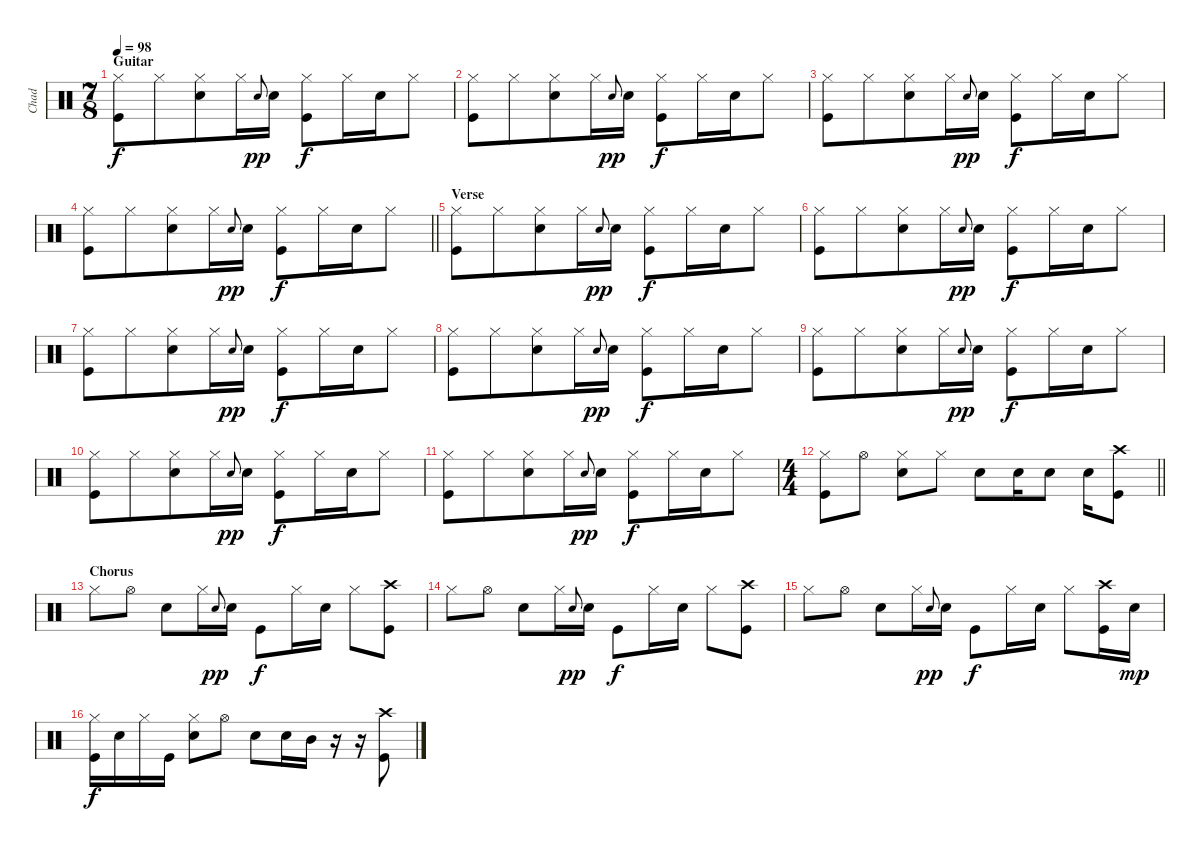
\track ("Chad" "Chad") {instrument percussion}
\staff {score}
\articulation defaults
\ts (7 8)
\section ("" "Guitar")
\tempo 98
\clef neutral
\ks c
("Hi-Hat (closed)" "Kick (hit)").8{dy f} "Hi-Hat (closed)".8 ("Hi-Hat (closed)" "Snare (hit) 2").8 "Hi-Hat (closed)".16 "Snare (hit) 2".8{gr onbeat dy pp} "Snare (hit) 2".16 ("Hi-Hat (closed)" "Kick (hit)").8{dy f} "Hi-Hat (closed)".16 "Snare (hit) 2".16 "Hi-Hat (closed)".8 |
("Hi-Hat (closed)" "Kick (hit)").8 "Hi-Hat (closed)".8 ("Hi-Hat (closed)" "Snare (hit) 2").8 "Hi-Hat (closed)".16 "Snare (hit) 2".8{gr onbeat dy pp} "Snare (hit) 2".16 ("Hi-Hat (closed)" "Kick (hit)").8{dy f} "Hi-Hat (closed)".16 "Snare (hit) 2".16 "Hi-Hat (closed)".8 |
("Hi-Hat (closed)" "Kick (hit)").8 "Hi-Hat (closed)".8 ("Hi-Hat (closed)" "Snare (hit) 2").8 "Hi-Hat (closed)".16 "Snare (hit) 2".8{gr onbeat dy pp} "Snare (hit) 2".16 ("Hi-Hat (closed)" "Kick (hit)").8{dy f} "Hi-Hat (closed)".16 "Snare (hit) 2".16 "Hi-Hat (closed)".8 |
\barLineRight lightlight
("Hi-Hat (closed)" "Kick (hit)").8 "Hi-Hat (closed)".8 ("Hi-Hat (closed)" "Snare (hit) 2").8 "Hi-Hat (closed)".16 "Snare (hit) 2".8{gr onbeat dy pp} "Snare (hit) 2".16 ("Hi-Hat (closed)" "Kick (hit)").8{dy f} "Hi-Hat (closed)".16 "Snare (hit) 2".16 "Hi-Hat (closed)".8 |
\section ("" "Verse")
("Hi-Hat (closed)" "Kick (hit)").8 "Hi-Hat (closed)".8 ("Hi-Hat (closed)" "Snare (hit) 2").8 "Hi-Hat (closed)".16 "Snare (hit) 2".8{gr onbeat dy pp} "Snare (hit) 2".16 ("Hi-Hat (closed)" "Kick (hit)").8{dy f} "Hi-Hat (closed)".16 "Snare (hit) 2".16 "Hi-Hat (closed)".8 |
("Hi-Hat (closed)" "Kick (hit)").8 "Hi-Hat (closed)".8 ("Hi-Hat (closed)" "Snare (hit) 2").8 "Hi-Hat (closed)".16 "Snare (hit) 2".8{gr onbeat dy pp} "Snare (hit) 2".16 ("Hi-Hat (closed)" "Kick (hit)").8{dy f} "Hi-Hat (closed)".16 "Snare (hit) 2".16 "Hi-Hat (closed)".8 |
("Hi-Hat (closed)" "Kick (hit)").8 "Hi-Hat (closed)".8 ("Hi-Hat (closed)" "Snare (hit) 2").8 "Hi-Hat (closed)".16 "Snare (hit) 2".8{gr onbeat dy pp} "Snare (hit) 2".16 ("Hi-Hat (closed)" "Kick (hit)").8{dy f} "Hi-Hat (closed)".16 "Snare (hit) 2".16 "Hi-Hat (closed)".8 |
("Hi-Hat (closed)" "Kick (hit)").8 "Hi-Hat (closed)".8 ("Hi-Hat (closed)" "Snare (hit) 2").8 "Hi-Hat (closed)".16 "Snare (hit) 2".8{gr onbeat dy pp} "Snare (hit) 2".16 ("Hi-Hat (closed)" "Kick (hit)").8{dy f} "Hi-Hat (closed)".16 "Snare (hit) 2".16 "Hi-Hat (closed)".8 |
("Hi-Hat (closed)" "Kick (hit)").8 "Hi-Hat (closed)".8 ("Hi-Hat (closed)" "Snare (hit) 2").8 "Hi-Hat (closed)".16 "Snare (hit) 2".8{gr onbeat dy pp} "Snare (hit) 2".16 ("Hi-Hat (closed)" "Kick (hit)").8{dy f} "Hi-Hat (closed)".16 "Snare (hit) 2".16 "Hi-Hat (closed)".8 |
("Hi-Hat (closed)" "Kick (hit)").8 "Hi-Hat (closed)".8 ("Hi-Hat (closed)" "Snare (hit) 2").8 "Hi-Hat (closed)".16 "Snare (hit) 2".8{gr onbeat dy pp} "Snare (hit) 2".16 ("Hi-Hat (closed)" "Kick (hit)").8{dy f} "Hi-Hat (closed)".16 "Snare (hit) 2".16 "Hi-Hat (closed)".8 |
("Hi-Hat (closed)" "Kick (hit)").8 "Hi-Hat (closed)".8 ("Hi-Hat (closed)" "Snare (hit) 2").8 "Hi-Hat (closed)".16 "Snare (hit) 2".8{gr onbeat dy pp} "Snare (hit) 2".16 ("Hi-Hat (closed)" "Kick (hit)").8{dy f} "Hi-Hat (closed)".16 "Snare (hit) 2".16 "Hi-Hat (closed)".8 |
\ts (4 4)
\barLineRight lightlight
("Hi-Hat (closed)" "Kick (hit)").8 "Hi-Hat (open)".8 ("Hi-Hat (closed)" "Snare (hit) 2").8 "Hi-Hat (closed)".8 "Snare (hit) 2".8 "Snare (hit) 2".16 "Snare (hit) 2".8 "Snare (hit) 2".16 ("Crash high (hit)" "Kick (hit)").8 |
\section ("" "Chorus")
"Hi-Hat (closed)".8 "Hi-Hat (open)".8 "Snare (hit) 2".8 "Hi-Hat (closed)".16 "Snare (hit) 2".8{gr onbeat dy pp} "Snare (hit) 2".16 "Kick (hit)".8{dy f} "Hi-Hat (closed)".16 "Snare (hit) 2".16 "Hi-Hat (closed)".8 ("Crash high (hit)" "Kick (hit)").8 |
"Hi-Hat (closed)".8 "Hi-Hat (open)".8 "Snare (hit) 2".8 "Hi-Hat (closed)".16 "Snare (hit) 2".8{gr onbeat dy pp} "Snare (hit) 2".16 "Kick (hit)".8{dy f} "Hi-Hat (closed)".16 "Snare (hit) 2".16 "Hi-Hat (closed)".8 ("Crash high (hit)" "Kick (hit)").8 |
"Hi-Hat (closed)".8 "Hi-Hat (open)".8 "Snare (hit) 2".8 "Hi-Hat (closed)".16 "Snare (hit) 2".8{gr onbeat dy pp} "Snare (hit) 2".16 "Kick (hit)".8{dy f} "Hi-Hat (closed)".16 "Snare (hit) 2".16 "Hi-Hat (closed)".8 ("Crash high (hit)" "Kick (hit)").16 "Snare (hit) 2".16{dy mp} |
("Hi-Hat (closed)" "Kick (hit)").16{dy f} "Snare (hit) 2".16 "Hi-Hat (closed)".16 "Kick (hit)".16 ("Snare (hit) 2" "Hi-Hat (closed)").8 "Hi-Hat (open)".8 "Snare (hit) 2".8 "Snare (hit) 2".16 "Mid Tom (hit)".16 r.16 r.16 ("Crash high (hit)" "Kick (hit)").8
